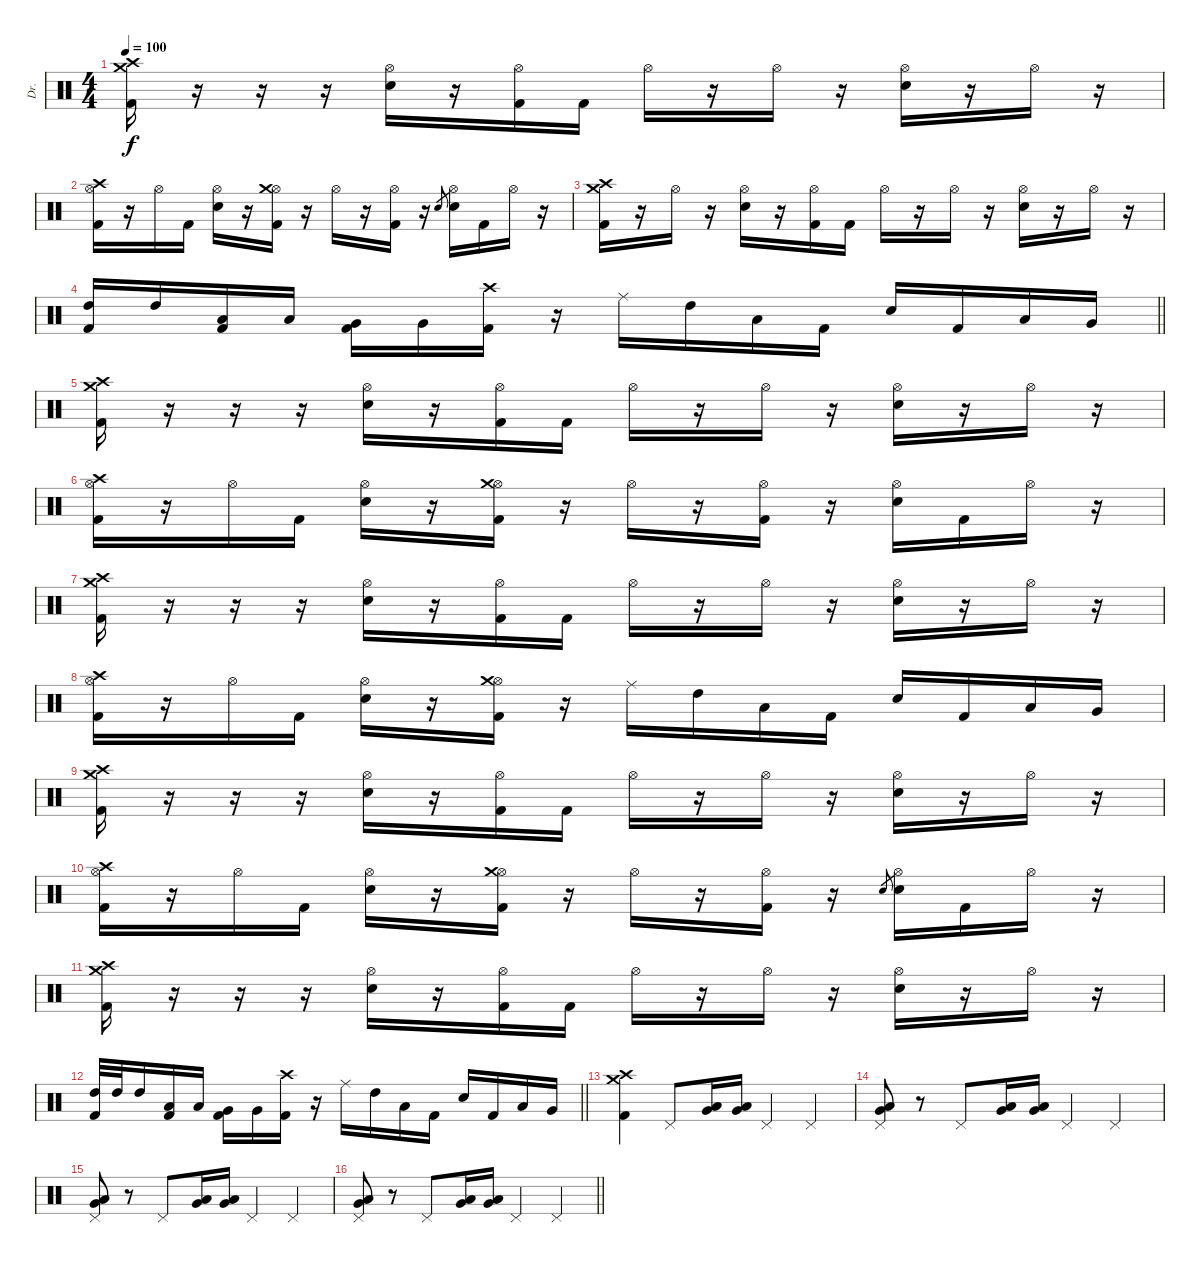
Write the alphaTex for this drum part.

\track ("Dr." "Dr.") {instrument percussion}
\staff {score}
\articulation defaults
\ts (4 4)
\tempo 100
\clef neutral
\ks c
("Crash high (hit)" "Crash medium (hit)" "Kick (hit) 2").16{dy f} r.16 r.16 r.16 ("Hi-Hat (open)" "Electric Snare (hit)").16 r.16 ("Hi-Hat (open)" "Kick (hit) 2").16 "Kick (hit) 2".16 "Hi-Hat (open)".16 r.16 "Hi-Hat (open)".16 r.16 ("Hi-Hat (open)" "Electric Snare (hit)").16 r.16 "Hi-Hat (open)".16 r.16 |
("Hi-Hat (open)" "Crash high (hit)" "Kick (hit) 2").16 r.16 "Hi-Hat (open)".16 "Kick (hit) 2".16 ("Hi-Hat (open)" "Electric Snare (hit)").16 r.16 ("Hi-Hat (open)" "Crash medium (hit)" "Kick (hit) 2").16 r.16 "Hi-Hat (open)".16 r.16 ("Hi-Hat (open)" "Kick (hit) 2").16 r.16 "Electric Snare (hit)".8{gr} ("Hi-Hat (open)" "Electric Snare (hit)").16 "Kick (hit) 2".16 "Hi-Hat (open)".16 r.16 |
("Crash high (hit)" "Crash medium (hit)" "Kick (hit) 2").16 r.16 "Hi-Hat (open)".16 r.16 ("Hi-Hat (open)" "Electric Snare (hit)").16 r.16 ("Hi-Hat (open)" "Kick (hit) 2").16 "Kick (hit) 2".16 "Hi-Hat (open)".16 r.16 "Hi-Hat (open)".16 r.16 ("Hi-Hat (open)" "Electric Snare (hit)").16 r.16 "Hi-Hat (open)".16 r.16 |
\barLineRight lightlight
("High Tom (hit)" "Kick (hit) 2").16 "High Tom (hit)".16 ("Low Tom (hit)" "Kick (hit) 2").16 "Low Tom (hit)".16 ("Very Low Tom (hit)" "Kick (hit) 2").16 "Very Low Tom (hit)".16 ("Crash high (hit)" "Kick (hit) 2").16 r.16 "Ride (middle)".16 "High Tom (hit)".16 "Low Tom (hit)".16 "Kick (hit) 2".16 "Electric Snare (hit)".16 "Kick (hit) 2".16 "Low Tom (hit)".16 "Very Low Tom (hit)".16 |
("Crash high (hit)" "Crash medium (hit)" "Kick (hit) 2").16 r.16 r.16 r.16 ("Hi-Hat (open)" "Electric Snare (hit)").16 r.16 ("Hi-Hat (open)" "Kick (hit) 2").16 "Kick (hit) 2".16 "Hi-Hat (open)".16 r.16 "Hi-Hat (open)".16 r.16 ("Hi-Hat (open)" "Electric Snare (hit)").16 r.16 "Hi-Hat (open)".16 r.16 |
("Hi-Hat (open)" "Crash high (hit)" "Kick (hit) 2").16 r.16 "Hi-Hat (open)".16 "Kick (hit) 2".16 ("Hi-Hat (open)" "Electric Snare (hit)").16 r.16 ("Hi-Hat (open)" "Crash medium (hit)" "Kick (hit) 2").16 r.16 "Hi-Hat (open)".16 r.16 ("Hi-Hat (open)" "Kick (hit) 2").16 r.16 ("Hi-Hat (open)" "Electric Snare (hit)").16 "Kick (hit) 2".16 "Hi-Hat (open)".16 r.16 |
("Crash high (hit)" "Crash medium (hit)" "Kick (hit) 2").16 r.16 r.16 r.16 ("Hi-Hat (open)" "Electric Snare (hit)").16 r.16 ("Hi-Hat (open)" "Kick (hit) 2").16 "Kick (hit) 2".16 "Hi-Hat (open)".16 r.16 "Hi-Hat (open)".16 r.16 ("Hi-Hat (open)" "Electric Snare (hit)").16 r.16 "Hi-Hat (open)".16 r.16 |
("Hi-Hat (open)" "Crash high (hit)" "Kick (hit) 2").16 r.16 "Hi-Hat (open)".16 "Kick (hit) 2".16 ("Hi-Hat (open)" "Electric Snare (hit)").16 r.16 ("Hi-Hat (open)" "Crash medium (hit)" "Kick (hit) 2").16 r.16 "Ride (middle)".16 "High Tom (hit)".16 "Low Tom (hit)".16 "Kick (hit) 2".16 "Electric Snare (hit)".16 "Kick (hit) 2".16 "Low Tom (hit)".16 "Very Low Tom (hit)".16 |
("Crash high (hit)" "Crash medium (hit)" "Kick (hit) 2").16 r.16 r.16 r.16 ("Hi-Hat (open)" "Electric Snare (hit)").16 r.16 ("Hi-Hat (open)" "Kick (hit) 2").16 "Kick (hit) 2".16 "Hi-Hat (open)".16 r.16 "Hi-Hat (open)".16 r.16 ("Hi-Hat (open)" "Electric Snare (hit)").16 r.16 "Hi-Hat (open)".16 r.16 |
("Hi-Hat (open)" "Crash high (hit)" "Kick (hit) 2").16 r.16 "Hi-Hat (open)".16 "Kick (hit) 2".16 ("Hi-Hat (open)" "Electric Snare (hit)").16 r.16 ("Hi-Hat (open)" "Crash medium (hit)" "Kick (hit) 2").16 r.16 "Hi-Hat (open)".16 r.16 ("Hi-Hat (open)" "Kick (hit) 2").16 r.16 "Electric Snare (hit)".8{gr} ("Hi-Hat (open)" "Electric Snare (hit)").16 "Kick (hit) 2".16 "Hi-Hat (open)".16 r.16 |
("Crash high (hit)" "Crash medium (hit)" "Kick (hit) 2").16 r.16 r.16 r.16 ("Hi-Hat (open)" "Electric Snare (hit)").16 r.16 ("Hi-Hat (open)" "Kick (hit) 2").16 "Kick (hit) 2".16 "Hi-Hat (open)".16 r.16 "Hi-Hat (open)".16 r.16 ("Hi-Hat (open)" "Electric Snare (hit)").16 r.16 "Hi-Hat (open)".16 r.16 |
\barLineRight lightlight
("High Tom (hit)" "Kick (hit) 2").32 "High Tom (hit)".32 "High Tom (hit)".16 ("Low Tom (hit)" "Kick (hit) 2").16 "Low Tom (hit)".16 ("Very Low Tom (hit)" "Kick (hit) 2").16 "Very Low Tom (hit)".16 ("Crash high (hit)" "Kick (hit) 2").16 r.16 "Ride (middle)".16 "High Tom (hit)".16 "Low Tom (hit)".16 "Kick (hit) 2".16 "Electric Snare (hit)".16 "Kick (hit) 2".16 "Low Tom (hit)".16 "Very Low Tom (hit)".16 |
("Crash high (hit)" "Crash medium (hit)" "Kick (hit) 2").4 "Pedal Hi-Hat (hit)".8 ("Low Tom (hit)" "Very Low Tom (hit)").16 ("Low Tom (hit)" "Very Low Tom (hit)").16 "Pedal Hi-Hat (hit)".4 "Pedal Hi-Hat (hit)".4 |
("Pedal Hi-Hat (hit)" "Low Tom (hit)" "Very Low Tom (hit)").8 r.8 "Pedal Hi-Hat (hit)".8 ("Low Tom (hit)" "Very Low Tom (hit)").16 ("Low Tom (hit)" "Very Low Tom (hit)").16 "Pedal Hi-Hat (hit)".4 "Pedal Hi-Hat (hit)".4 |
("Pedal Hi-Hat (hit)" "Low Tom (hit)" "Very Low Tom (hit)").8 r.8 "Pedal Hi-Hat (hit)".8 ("Low Tom (hit)" "Very Low Tom (hit)").16 ("Low Tom (hit)" "Very Low Tom (hit)").16 "Pedal Hi-Hat (hit)".4 "Pedal Hi-Hat (hit)".4 |
\barLineRight lightlight
("Pedal Hi-Hat (hit)" "Low Tom (hit)" "Very Low Tom (hit)").8 r.8 "Pedal Hi-Hat (hit)".8 ("Low Tom (hit)" "Very Low Tom (hit)").16 ("Low Tom (hit)" "Very Low Tom (hit)").16 "Pedal Hi-Hat (hit)".4 "Pedal Hi-Hat (hit)".4
